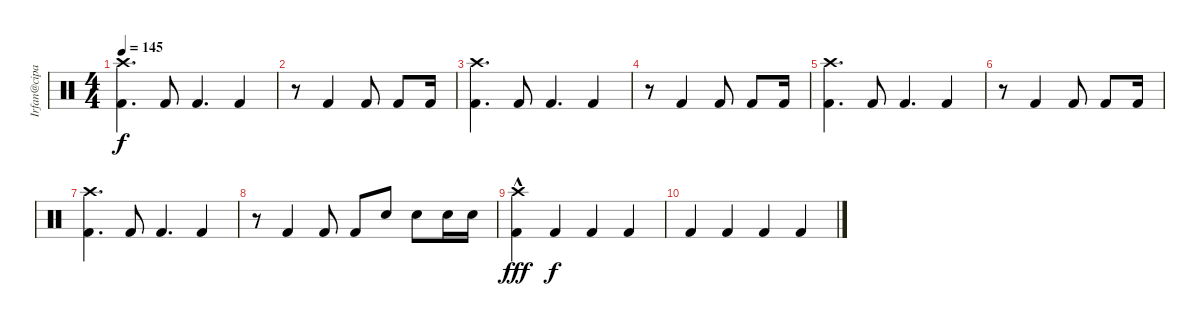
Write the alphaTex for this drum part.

\track ("Irfan@cipan" "Irfan@cipa") {instrument percussion}
\staff {score}
\articulation defaults
\ts (4 4)
\tempo 145
\clef neutral
\ks c
("Crash high (hit)" "Kick (hit) 2").4{d dy f} "Kick (hit) 2".8 "Kick (hit) 2".4{d} "Kick (hit) 2".4 |
r.8 "Kick (hit) 2".4 "Kick (hit) 2".8 "Kick (hit) 2".8 "Kick (hit) 2".16 |
("Crash high (hit)" "Kick (hit) 2").4{d} "Kick (hit) 2".8 "Kick (hit) 2".4{d} "Kick (hit) 2".4 |
r.8 "Kick (hit) 2".4 "Kick (hit) 2".8 "Kick (hit) 2".8 "Kick (hit) 2".16 |
("Crash high (hit)" "Kick (hit) 2").4{d} "Kick (hit) 2".8 "Kick (hit) 2".4{d} "Kick (hit) 2".4 |
r.8 "Kick (hit) 2".4 "Kick (hit) 2".8 "Kick (hit) 2".8 "Kick (hit) 2".16 |
("Crash high (hit)" "Kick (hit) 2").4{d} "Kick (hit) 2".8 "Kick (hit) 2".4{d} "Kick (hit) 2".4 |
r.8 "Kick (hit) 2".4 "Kick (hit) 2".8 "Kick (hit) 2".8 "Electric Snare (hit)".8 "Electric Snare (hit)".8 "Electric Snare (hit)".16 "Electric Snare (hit)".16 |
("Crash high (hit)"{hac} "Kick (hit) 2").4{dy fff} "Kick (hit) 2".4{dy f} "Kick (hit) 2".4 "Kick (hit) 2".4 |
"Kick (hit) 2".4 "Kick (hit) 2".4 "Kick (hit) 2".4 "Kick (hit) 2".4
